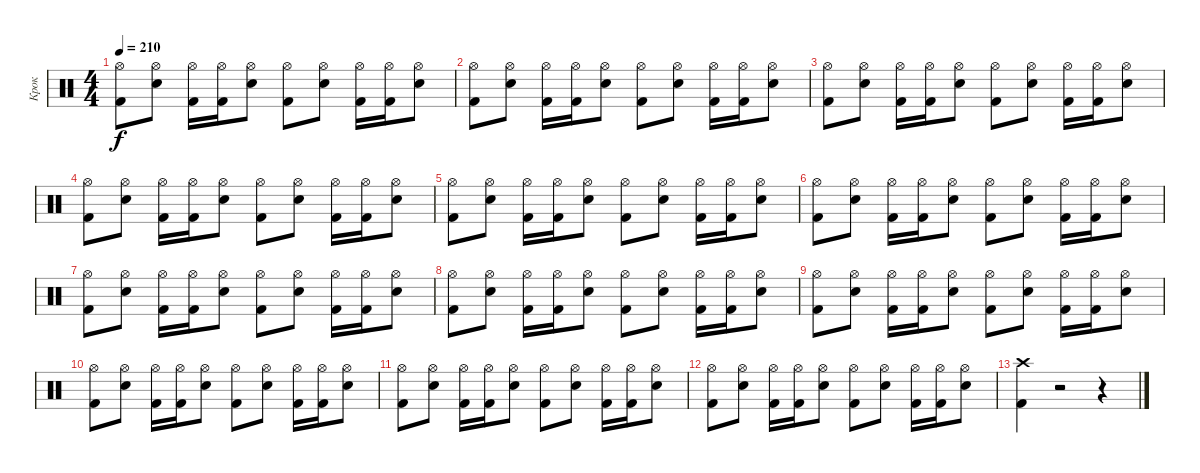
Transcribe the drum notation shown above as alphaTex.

\track ("Крок" "Крок") {instrument percussion}
\staff {score}
\articulation defaults
\ts (4 4)
\tempo 210
\clef neutral
\ks c
("Hi-Hat (open)" "Kick (hit) 2").8{dy f} ("Hi-Hat (open)" "Electric Snare (hit)").8 ("Hi-Hat (open)" "Kick (hit) 2").16 ("Hi-Hat (open)" "Kick (hit) 2").16 ("Hi-Hat (open)" "Electric Snare (hit)").8 ("Hi-Hat (open)" "Kick (hit) 2").8 ("Hi-Hat (open)" "Electric Snare (hit)").8 ("Hi-Hat (open)" "Kick (hit) 2").16 ("Hi-Hat (open)" "Kick (hit) 2").16 ("Hi-Hat (open)" "Electric Snare (hit)").8 |
("Hi-Hat (open)" "Kick (hit) 2").8 ("Hi-Hat (open)" "Electric Snare (hit)").8 ("Hi-Hat (open)" "Kick (hit) 2").16 ("Hi-Hat (open)" "Kick (hit) 2").16 ("Hi-Hat (open)" "Electric Snare (hit)").8 ("Hi-Hat (open)" "Kick (hit) 2").8 ("Hi-Hat (open)" "Electric Snare (hit)").8 ("Hi-Hat (open)" "Kick (hit) 2").16 ("Hi-Hat (open)" "Kick (hit) 2").16 ("Hi-Hat (open)" "Electric Snare (hit)").8 |
("Hi-Hat (open)" "Kick (hit) 2").8 ("Hi-Hat (open)" "Electric Snare (hit)").8 ("Hi-Hat (open)" "Kick (hit) 2").16 ("Hi-Hat (open)" "Kick (hit) 2").16 ("Hi-Hat (open)" "Electric Snare (hit)").8 ("Hi-Hat (open)" "Kick (hit) 2").8 ("Hi-Hat (open)" "Electric Snare (hit)").8 ("Hi-Hat (open)" "Kick (hit) 2").16 ("Hi-Hat (open)" "Kick (hit) 2").16 ("Hi-Hat (open)" "Electric Snare (hit)").8 |
("Hi-Hat (open)" "Kick (hit) 2").8 ("Hi-Hat (open)" "Electric Snare (hit)").8 ("Hi-Hat (open)" "Kick (hit) 2").16 ("Hi-Hat (open)" "Kick (hit) 2").16 ("Hi-Hat (open)" "Electric Snare (hit)").8 ("Hi-Hat (open)" "Kick (hit) 2").8 ("Hi-Hat (open)" "Electric Snare (hit)").8 ("Hi-Hat (open)" "Kick (hit) 2").16 ("Hi-Hat (open)" "Kick (hit) 2").16 ("Hi-Hat (open)" "Electric Snare (hit)").8 |
("Hi-Hat (open)" "Kick (hit) 2").8 ("Hi-Hat (open)" "Electric Snare (hit)").8 ("Hi-Hat (open)" "Kick (hit) 2").16 ("Hi-Hat (open)" "Kick (hit) 2").16 ("Hi-Hat (open)" "Electric Snare (hit)").8 ("Hi-Hat (open)" "Kick (hit) 2").8 ("Hi-Hat (open)" "Electric Snare (hit)").8 ("Hi-Hat (open)" "Kick (hit) 2").16 ("Hi-Hat (open)" "Kick (hit) 2").16 ("Hi-Hat (open)" "Electric Snare (hit)").8 |
("Hi-Hat (open)" "Kick (hit) 2").8 ("Hi-Hat (open)" "Electric Snare (hit)").8 ("Hi-Hat (open)" "Kick (hit) 2").16 ("Hi-Hat (open)" "Kick (hit) 2").16 ("Hi-Hat (open)" "Electric Snare (hit)").8 ("Hi-Hat (open)" "Kick (hit) 2").8 ("Hi-Hat (open)" "Electric Snare (hit)").8 ("Hi-Hat (open)" "Kick (hit) 2").16 ("Hi-Hat (open)" "Kick (hit) 2").16 ("Hi-Hat (open)" "Electric Snare (hit)").8 |
("Hi-Hat (open)" "Kick (hit) 2").8 ("Hi-Hat (open)" "Electric Snare (hit)").8 ("Hi-Hat (open)" "Kick (hit) 2").16 ("Hi-Hat (open)" "Kick (hit) 2").16 ("Hi-Hat (open)" "Electric Snare (hit)").8 ("Hi-Hat (open)" "Kick (hit) 2").8 ("Hi-Hat (open)" "Electric Snare (hit)").8 ("Hi-Hat (open)" "Kick (hit) 2").16 ("Hi-Hat (open)" "Kick (hit) 2").16 ("Hi-Hat (open)" "Electric Snare (hit)").8 |
("Hi-Hat (open)" "Kick (hit) 2").8 ("Hi-Hat (open)" "Electric Snare (hit)").8 ("Hi-Hat (open)" "Kick (hit) 2").16 ("Hi-Hat (open)" "Kick (hit) 2").16 ("Hi-Hat (open)" "Electric Snare (hit)").8 ("Hi-Hat (open)" "Kick (hit) 2").8 ("Hi-Hat (open)" "Electric Snare (hit)").8 ("Hi-Hat (open)" "Kick (hit) 2").16 ("Hi-Hat (open)" "Kick (hit) 2").16 ("Hi-Hat (open)" "Electric Snare (hit)").8 |
("Hi-Hat (open)" "Kick (hit) 2").8 ("Hi-Hat (open)" "Electric Snare (hit)").8 ("Hi-Hat (open)" "Kick (hit) 2").16 ("Hi-Hat (open)" "Kick (hit) 2").16 ("Hi-Hat (open)" "Electric Snare (hit)").8 ("Hi-Hat (open)" "Kick (hit) 2").8 ("Hi-Hat (open)" "Electric Snare (hit)").8 ("Hi-Hat (open)" "Kick (hit) 2").16 ("Hi-Hat (open)" "Kick (hit) 2").16 ("Hi-Hat (open)" "Electric Snare (hit)").8 |
("Hi-Hat (open)" "Kick (hit) 2").8 ("Hi-Hat (open)" "Electric Snare (hit)").8 ("Hi-Hat (open)" "Kick (hit) 2").16 ("Hi-Hat (open)" "Kick (hit) 2").16 ("Hi-Hat (open)" "Electric Snare (hit)").8 ("Hi-Hat (open)" "Kick (hit) 2").8 ("Hi-Hat (open)" "Electric Snare (hit)").8 ("Hi-Hat (open)" "Kick (hit) 2").16 ("Hi-Hat (open)" "Kick (hit) 2").16 ("Hi-Hat (open)" "Electric Snare (hit)").8 |
("Hi-Hat (open)" "Kick (hit) 2").8 ("Hi-Hat (open)" "Electric Snare (hit)").8 ("Hi-Hat (open)" "Kick (hit) 2").16 ("Hi-Hat (open)" "Kick (hit) 2").16 ("Hi-Hat (open)" "Electric Snare (hit)").8 ("Hi-Hat (open)" "Kick (hit) 2").8 ("Hi-Hat (open)" "Electric Snare (hit)").8 ("Hi-Hat (open)" "Kick (hit) 2").16 ("Hi-Hat (open)" "Kick (hit) 2").16 ("Hi-Hat (open)" "Electric Snare (hit)").8 |
("Hi-Hat (open)" "Kick (hit) 2").8 ("Hi-Hat (open)" "Electric Snare (hit)").8 ("Hi-Hat (open)" "Kick (hit) 2").16 ("Hi-Hat (open)" "Kick (hit) 2").16 ("Hi-Hat (open)" "Electric Snare (hit)").8 ("Hi-Hat (open)" "Kick (hit) 2").8 ("Hi-Hat (open)" "Electric Snare (hit)").8 ("Hi-Hat (open)" "Kick (hit) 2").16 ("Hi-Hat (open)" "Kick (hit) 2").16 ("Hi-Hat (open)" "Electric Snare (hit)").8 |
("Crash high (hit)" "Kick (hit) 2").4 r.2 r.4
